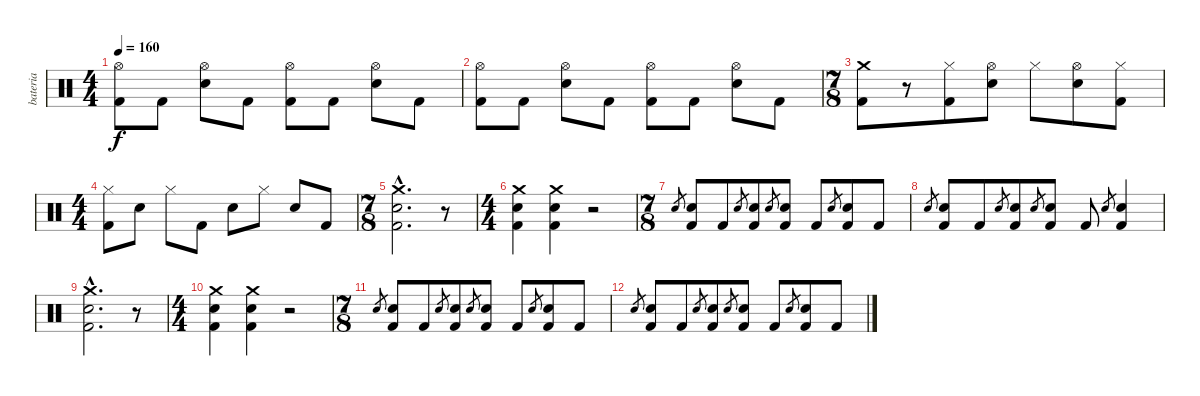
\track ("bateria" "bateria") {instrument percussion}
\staff {score}
\articulation defaults
\ts (4 4)
\tempo 160
\clef neutral
\ks c
("Hi-Hat (open)" "Kick (hit) 2").8{dy f} "Kick (hit) 2".8 ("Hi-Hat (open)" "Electric Snare (hit)").8 "Kick (hit) 2".8 ("Hi-Hat (open)" "Kick (hit) 2").8 "Kick (hit) 2".8 ("Hi-Hat (open)" "Electric Snare (hit)").8 "Kick (hit) 2".8 |
("Hi-Hat (open)" "Kick (hit) 2").8 "Kick (hit) 2".8 ("Hi-Hat (open)" "Electric Snare (hit)").8 "Kick (hit) 2".8 ("Hi-Hat (open)" "Kick (hit) 2").8 "Kick (hit) 2".8 ("Hi-Hat (open)" "Electric Snare (hit)").8 "Kick (hit) 2".8 |
\ts (7 8)
("Crash medium (hit)" "Kick (hit) 2").8 r.8 ("Hi-Hat (closed)" "Kick (hit) 2").8 ("Hi-Hat (open)" "Electric Snare (hit)").8 "Hi-Hat (closed)".8 ("Hi-Hat (open)" "Electric Snare (hit)").8 ("Hi-Hat (closed)" "Kick (hit) 2").8 |
\ts (4 4)
("Hi-Hat (closed)" "Kick (hit) 2").8 "Electric Snare (hit)".8 "Hi-Hat (closed)".8 "Kick (hit) 2".8 "Electric Snare (hit)".8 "Hi-Hat (closed)".8 "Electric Snare (hit)".8 "Kick (hit) 2".8 |
\ts (7 8)
("Crash medium (hit)"{hac} "Electric Snare (hit)"{hac} "Kick (hit) 2"{hac}).2{d} r.8 |
\ts (4 4)
("Crash medium (hit)" "Electric Snare (hit)" "Kick (hit) 2").4 ("Crash medium (hit)" "Electric Snare (hit)" "Kick (hit) 2").4 r.2 |
\ts (7 8)
"Electric Snare (hit)".8{gr} ("Electric Snare (hit)" "Kick (hit) 2").8 "Kick (hit) 2".8 "Electric Snare (hit)".8{gr} ("Electric Snare (hit)" "Kick (hit) 2").8 "Electric Snare (hit)".8{gr} ("Electric Snare (hit)" "Kick (hit) 2").8 "Kick (hit) 2".8 "Electric Snare (hit)".8{gr} ("Electric Snare (hit)" "Kick (hit) 2").8 "Kick (hit) 2".8 |
"Electric Snare (hit)".8{gr} ("Electric Snare (hit)" "Kick (hit) 2").8 "Kick (hit) 2".8 "Electric Snare (hit)".8{gr} ("Electric Snare (hit)" "Kick (hit) 2").8 "Electric Snare (hit)".8{gr} ("Electric Snare (hit)" "Kick (hit) 2").8 "Kick (hit) 2".8 "Electric Snare (hit)".8{gr} ("Electric Snare (hit)" "Kick (hit) 2").4 |
("Crash medium (hit)"{hac} "Electric Snare (hit)"{hac} "Kick (hit) 2"{hac}).2{d} r.8 |
\ts (4 4)
("Crash medium (hit)" "Electric Snare (hit)" "Kick (hit) 2").4 ("Crash medium (hit)" "Electric Snare (hit)" "Kick (hit) 2").4 r.2 |
\ts (7 8)
"Electric Snare (hit)".8{gr} ("Electric Snare (hit)" "Kick (hit) 2").8 "Kick (hit) 2".8 "Electric Snare (hit)".8{gr} ("Electric Snare (hit)" "Kick (hit) 2").8 "Electric Snare (hit)".8{gr} ("Electric Snare (hit)" "Kick (hit) 2").8 "Kick (hit) 2".8 "Electric Snare (hit)".8{gr} ("Electric Snare (hit)" "Kick (hit) 2").8 "Kick (hit) 2".8 |
"Electric Snare (hit)".8{gr} ("Electric Snare (hit)" "Kick (hit) 2").8 "Kick (hit) 2".8 "Electric Snare (hit)".8{gr} ("Electric Snare (hit)" "Kick (hit) 2").8 "Electric Snare (hit)".8{gr} ("Electric Snare (hit)" "Kick (hit) 2").8 "Kick (hit) 2".8 "Electric Snare (hit)".8{gr} ("Electric Snare (hit)" "Kick (hit) 2").8 "Kick (hit) 2".8
